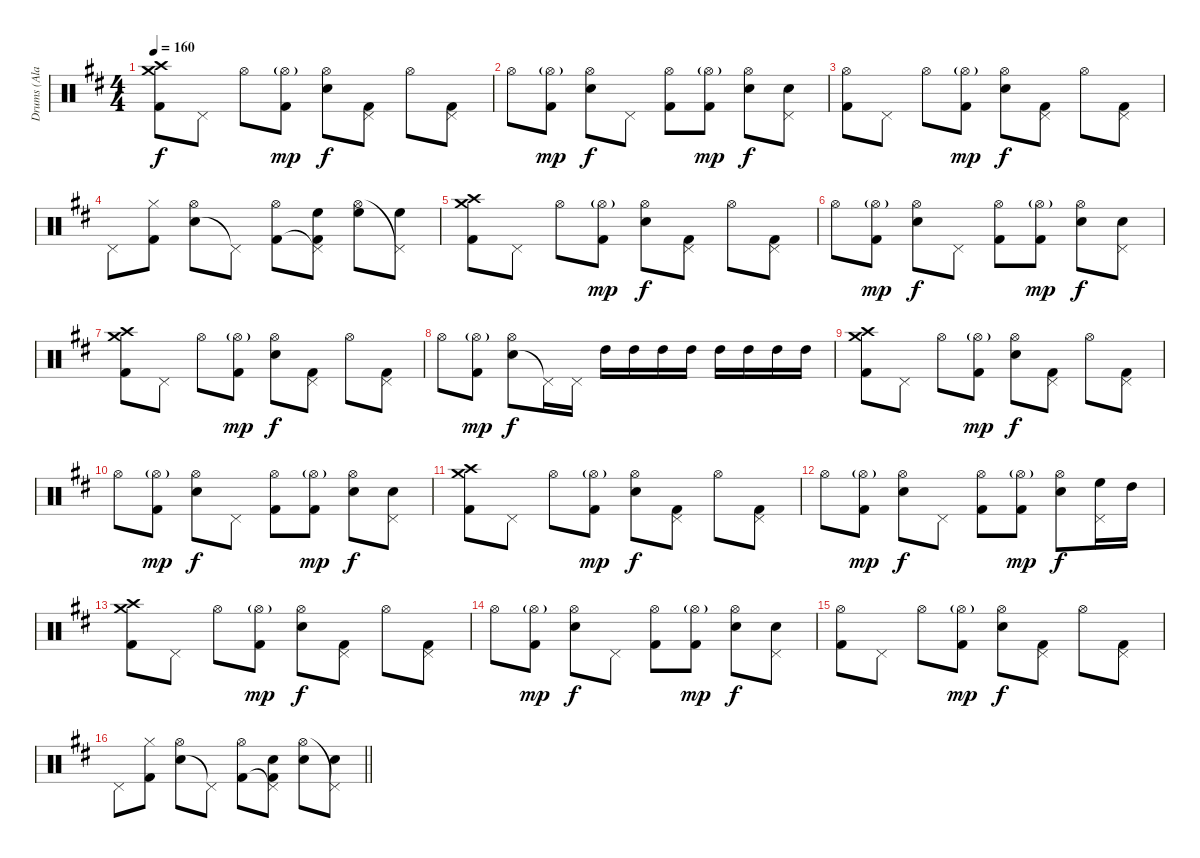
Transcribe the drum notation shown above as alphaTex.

\track ("Drums (Ala Pyle)" "Drums (Ala") {instrument percussion}
\staff {score}
\articulation defaults
\ts (4 4)
\tempo 160
\clef neutral
\ks d
("Crash medium (hit)" "Crash high (hit)" "Kick (hit) 2").8{dy f} "Pedal Hi-Hat (hit)".8 "Hi-Hat (open)".8 ("Hi-Hat (open)"{g} "Kick (hit) 2").8{dy mp} ("Snare (hit) 2" "Hi-Hat (open)").8{dy f} ("Pedal Hi-Hat (hit)" "Kick (hit) 2").8 "Hi-Hat (open)".8 ("Pedal Hi-Hat (hit)" "Kick (hit) 2").8 |
"Hi-Hat (open)".8 ("Hi-Hat (open)"{g} "Kick (hit) 2").8{dy mp} ("Snare (hit) 2" "Hi-Hat (open)").8{dy f} "Pedal Hi-Hat (hit)".8 ("Hi-Hat (open)" "Kick (hit) 2").8 ("Hi-Hat (open)"{g} "Kick (hit) 2").8{dy mp} ("Snare (hit) 2" "Hi-Hat (open)").8{dy f} ("Snare (hit) 2" "Pedal Hi-Hat (hit)").8 |
("Hi-Hat (open)" "Kick (hit) 2").8 "Pedal Hi-Hat (hit)".8 "Hi-Hat (open)".8 ("Hi-Hat (open)"{g} "Kick (hit) 2").8{dy mp} ("Snare (hit) 2" "Hi-Hat (open)").8{dy f} ("Pedal Hi-Hat (hit)" "Kick (hit) 2").8 "Hi-Hat (open)".8 ("Pedal Hi-Hat (hit)" "Kick (hit) 2").8 |
"Pedal Hi-Hat (hit)".8 ("Hi-Hat (closed)" "Kick (hit) 2").8 ("Snare (hit) 2" "Hi-Hat (open)").8 "Pedal Hi-Hat (hit)"{t}.8 ("Hi-Hat (open)" "Kick (hit) 2").8 ("High Floor Tom (hit)" "Pedal Hi-Hat (hit)"{t} "Kick (hit) 2").8 ("High Floor Tom (hit)" "Hi-Hat (open)").8 ("High Floor Tom (hit)" "Pedal Hi-Hat (hit)"{t}).8 |
("Crash medium (hit)" "Crash high (hit)" "Kick (hit) 2").8 "Pedal Hi-Hat (hit)".8 "Hi-Hat (open)".8 ("Hi-Hat (open)"{g} "Kick (hit) 2").8{dy mp} ("Snare (hit) 2" "Hi-Hat (open)").8{dy f} ("Pedal Hi-Hat (hit)" "Kick (hit) 2").8 "Hi-Hat (open)".8 ("Pedal Hi-Hat (hit)" "Kick (hit) 2").8 |
"Hi-Hat (open)".8 ("Hi-Hat (open)"{g} "Kick (hit) 2").8{dy mp} ("Snare (hit) 2" "Hi-Hat (open)").8{dy f} "Pedal Hi-Hat (hit)".8 ("Hi-Hat (open)" "Kick (hit) 2").8 ("Hi-Hat (open)"{g} "Kick (hit) 2").8{dy mp} ("Snare (hit) 2" "Hi-Hat (open)").8{dy f} ("Snare (hit) 2" "Pedal Hi-Hat (hit)").8 |
("Crash medium (hit)" "Crash high (hit)" "Kick (hit) 2").8 "Pedal Hi-Hat (hit)".8 "Hi-Hat (open)".8 ("Hi-Hat (open)"{g} "Kick (hit) 2").8{dy mp} ("Snare (hit) 2" "Hi-Hat (open)").8{dy f} ("Pedal Hi-Hat (hit)" "Kick (hit) 2").8 "Hi-Hat (open)".8 ("Pedal Hi-Hat (hit)" "Kick (hit) 2").8 |
"Hi-Hat (open)".8 ("Hi-Hat (open)"{g} "Kick (hit) 2").8{dy mp} ("Snare (hit) 2" "Hi-Hat (open)").8{dy f} "Pedal Hi-Hat (hit)"{t}.16 "Pedal Hi-Hat (hit)".16 "High Tom (hit)".16 "High Tom (hit)".16 "High Tom (hit)".16 "High Tom (hit)".16 "High Tom (hit)".16 "High Tom (hit)".16 "High Tom (hit)".16 "High Tom (hit)".16 |
("Crash medium (hit)" "Crash high (hit)" "Kick (hit) 2").8 "Pedal Hi-Hat (hit)".8 "Hi-Hat (open)".8 ("Hi-Hat (open)"{g} "Kick (hit) 2").8{dy mp} ("Snare (hit) 2" "Hi-Hat (open)").8{dy f} ("Pedal Hi-Hat (hit)" "Kick (hit) 2").8 "Hi-Hat (open)".8 ("Pedal Hi-Hat (hit)" "Kick (hit) 2").8 |
"Hi-Hat (open)".8 ("Hi-Hat (open)"{g} "Kick (hit) 2").8{dy mp} ("Snare (hit) 2" "Hi-Hat (open)").8{dy f} "Pedal Hi-Hat (hit)".8 ("Hi-Hat (open)" "Kick (hit) 2").8 ("Hi-Hat (open)"{g} "Kick (hit) 2").8{dy mp} ("Snare (hit) 2" "Hi-Hat (open)").8{dy f} ("Snare (hit) 2" "Pedal Hi-Hat (hit)").8 |
("Crash medium (hit)" "Crash high (hit)" "Kick (hit) 2").8 "Pedal Hi-Hat (hit)".8 "Hi-Hat (open)".8 ("Hi-Hat (open)"{g} "Kick (hit) 2").8{dy mp} ("Snare (hit) 2" "Hi-Hat (open)").8{dy f} ("Pedal Hi-Hat (hit)" "Kick (hit) 2").8 "Hi-Hat (open)".8 ("Pedal Hi-Hat (hit)" "Kick (hit) 2").8 |
"Hi-Hat (open)".8 ("Hi-Hat (open)"{g} "Kick (hit) 2").8{dy mp} ("Snare (hit) 2" "Hi-Hat (open)").8{dy f} "Pedal Hi-Hat (hit)".8 ("Hi-Hat (open)" "Kick (hit) 2").8 ("Hi-Hat (open)"{g} "Kick (hit) 2").8{dy mp} ("Snare (hit) 2" "Hi-Hat (open)").8{dy f} ("Pedal Hi-Hat (hit)" "High Floor Tom (hit)").16 "High Tom (hit)".16 |
("Crash medium (hit)" "Crash high (hit)" "Kick (hit) 2").8 "Pedal Hi-Hat (hit)".8 "Hi-Hat (open)".8 ("Hi-Hat (open)"{g} "Kick (hit) 2").8{dy mp} ("Snare (hit) 2" "Hi-Hat (open)").8{dy f} ("Pedal Hi-Hat (hit)" "Kick (hit) 2").8 "Hi-Hat (open)".8 ("Pedal Hi-Hat (hit)" "Kick (hit) 2").8 |
"Hi-Hat (open)".8 ("Hi-Hat (open)"{g} "Kick (hit) 2").8{dy mp} ("Snare (hit) 2" "Hi-Hat (open)").8{dy f} "Pedal Hi-Hat (hit)".8 ("Hi-Hat (open)" "Kick (hit) 2").8 ("Hi-Hat (open)"{g} "Kick (hit) 2").8{dy mp} ("Snare (hit) 2" "Hi-Hat (open)").8{dy f} ("Snare (hit) 2" "Pedal Hi-Hat (hit)").8 |
("Hi-Hat (open)" "Kick (hit) 2").8 "Pedal Hi-Hat (hit)".8 "Hi-Hat (open)".8 ("Hi-Hat (open)"{g} "Kick (hit) 2").8{dy mp} ("Snare (hit) 2" "Hi-Hat (open)").8{dy f} ("Pedal Hi-Hat (hit)" "Kick (hit) 2").8 "Hi-Hat (open)".8 ("Pedal Hi-Hat (hit)" "Kick (hit) 2").8 |
\barLineRight lightlight "Pedal Hi-Hat (hit)".8
("Hi-Hat (closed)" "Kick (hit) 2").8 ("Snare (hit) 2" "Hi-Hat (open)").8 "Pedal Hi-Hat (hit)"{t}.8 ("Hi-Hat (open)" "Kick (hit) 2").8 ("Snare (hit) 2" "Pedal Hi-Hat (hit)"{t} "Kick (hit) 2").8 ("Snare (hit) 2" "Hi-Hat (open)").8 ("Snare (hit) 2" "Pedal Hi-Hat (hit)"{t}).8
